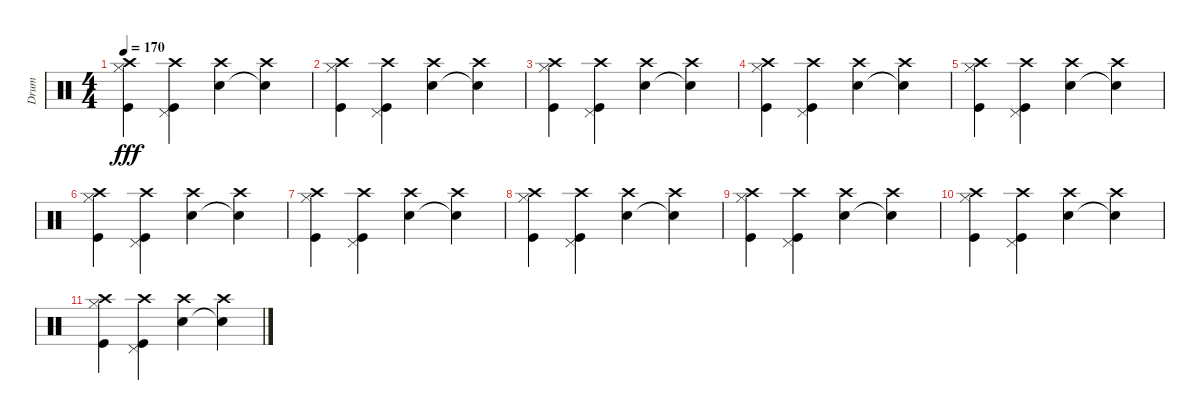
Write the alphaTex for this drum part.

\track ("Drum" "Drum") {instrument percussion}
\staff {score}
\articulation defaults
\ts (4 4)
\tempo 170
\clef neutral
\ks c
("Crash high (hit)" "Hi-Hat (closed)" "Kick (hit)").4{dy fff} ("Crash high (hit)" "Pedal Hi-Hat (hit)" "Kick (hit)").4 ("Crash high (hit)" "Snare (hit) 2").4 ("Crash high (hit)" "Snare (hit)"{t}).4 |
("Crash high (hit)" "Hi-Hat (closed)" "Kick (hit)").4 ("Crash high (hit)" "Pedal Hi-Hat (hit)" "Kick (hit)").4 ("Crash high (hit)" "Snare (hit) 2").4 ("Crash high (hit)" "Snare (hit)"{t}).4 |
("Crash high (hit)" "Hi-Hat (closed)" "Kick (hit)").4 ("Crash high (hit)" "Pedal Hi-Hat (hit)" "Kick (hit)").4 ("Crash high (hit)" "Snare (hit) 2").4 ("Crash high (hit)" "Snare (hit)"{t}).4 |
("Crash high (hit)" "Hi-Hat (closed)" "Kick (hit)").4 ("Crash high (hit)" "Pedal Hi-Hat (hit)" "Kick (hit)").4 ("Crash high (hit)" "Snare (hit) 2").4 ("Crash high (hit)" "Snare (hit)"{t}).4 |
("Crash high (hit)" "Hi-Hat (closed)" "Kick (hit)").4 ("Crash high (hit)" "Pedal Hi-Hat (hit)" "Kick (hit)").4 ("Crash high (hit)" "Snare (hit) 2").4 ("Crash high (hit)" "Snare (hit)"{t}).4 |
("Crash high (hit)" "Hi-Hat (closed)" "Kick (hit)").4 ("Crash high (hit)" "Pedal Hi-Hat (hit)" "Kick (hit)").4 ("Crash high (hit)" "Snare (hit) 2").4 ("Crash high (hit)" "Snare (hit)"{t}).4 |
("Crash high (hit)" "Hi-Hat (closed)" "Kick (hit)").4 ("Crash high (hit)" "Pedal Hi-Hat (hit)" "Kick (hit)").4 ("Crash high (hit)" "Snare (hit) 2").4 ("Crash high (hit)" "Snare (hit)"{t}).4 |
("Crash high (hit)" "Hi-Hat (closed)" "Kick (hit)").4 ("Crash high (hit)" "Pedal Hi-Hat (hit)" "Kick (hit)").4 ("Crash high (hit)" "Snare (hit) 2").4 ("Crash high (hit)" "Snare (hit)"{t}).4 |
("Crash high (hit)" "Hi-Hat (closed)" "Kick (hit)").4 ("Crash high (hit)" "Pedal Hi-Hat (hit)" "Kick (hit)").4 ("Crash high (hit)" "Snare (hit) 2").4 ("Crash high (hit)" "Snare (hit)"{t}).4 |
("Crash high (hit)" "Hi-Hat (closed)" "Kick (hit)").4 ("Crash high (hit)" "Pedal Hi-Hat (hit)" "Kick (hit)").4 ("Crash high (hit)" "Snare (hit) 2").4 ("Crash high (hit)" "Snare (hit)"{t}).4 |
("Crash high (hit)" "Hi-Hat (closed)" "Kick (hit)").4 ("Crash high (hit)" "Pedal Hi-Hat (hit)" "Kick (hit)").4 ("Crash high (hit)" "Snare (hit) 2").4 ("Crash high (hit)" "Snare (hit)"{t}).4
